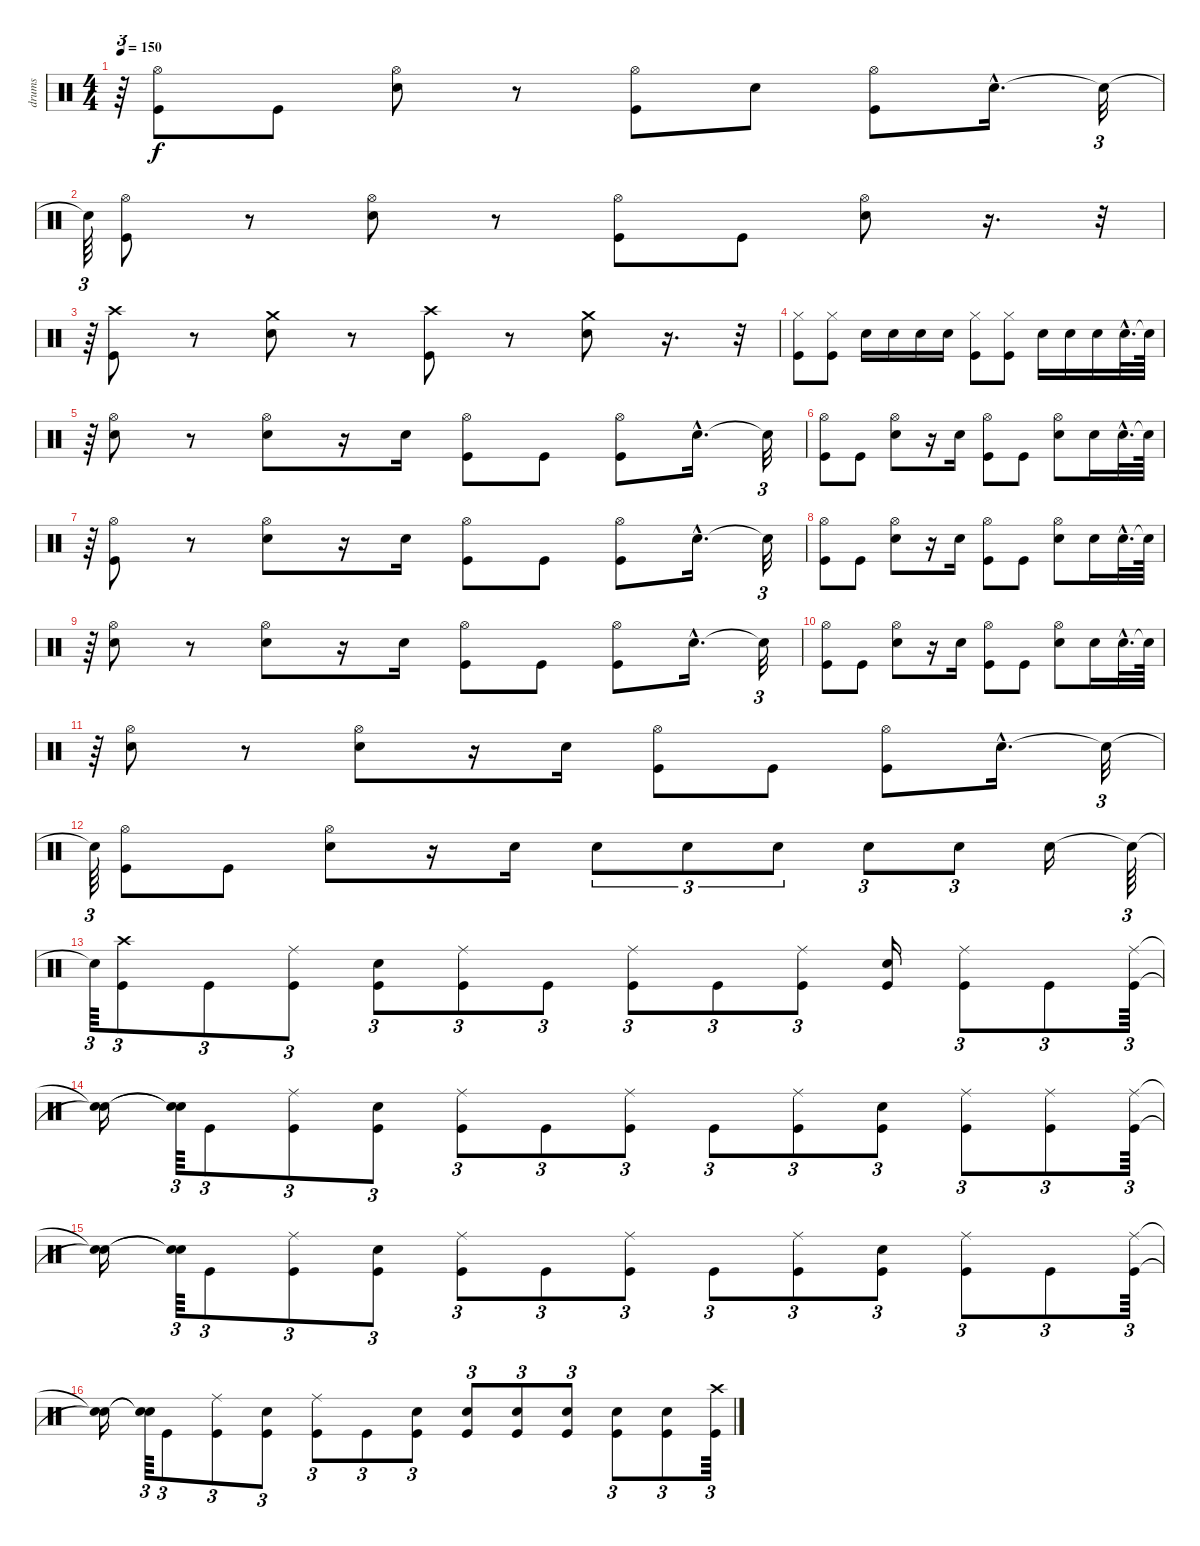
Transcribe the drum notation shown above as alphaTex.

\track ("drums" "drums") {instrument percussion}
\staff {score}
\articulation defaults
\ts (4 4)
\tempo 150
\clef neutral
\ks c
r.64{tu (3 2) dy f} ("Hi-Hat (open)" "Kick (hit)").8 "Kick (hit)".8 ("Hi-Hat (open)" "Electric Snare (hit)").8 r.8 ("Kick (hit)" "Hi-Hat (open)").8 "Electric Snare (hit)".8 ("Hi-Hat (open)" "Kick (hit)").8 "Electric Snare (hit)"{hac}.16{d} "Snare (hit)"{t}.32{tu (3 2)} |
"Snare (hit)"{t}.64{tu (3 2)} ("Hi-Hat (open)" "Kick (hit)").8 r.8 ("Hi-Hat (open)" "Electric Snare (hit)").8 r.8 ("Hi-Hat (open)" "Kick (hit)").8 "Kick (hit)".8 ("Hi-Hat (open)" "Electric Snare (hit)").8 r.16{d} r.32{tu (3 2)} |
r.64{tu (3 2)} ("Crash high (hit)" "Kick (hit)").8 r.8 ("Crash medium (hit)" "Electric Snare (hit)").8 r.8 ("Crash high (hit)" "Kick (hit)").8 r.8 ("Crash medium (hit)" "Electric Snare (hit)").8 r.16{d} r.32{tu (3 2)} |
("Hi-Hat (closed)" "Kick (hit)").8 ("Hi-Hat (closed)" "Kick (hit)").8 "Electric Snare (hit)".16 "Electric Snare (hit)".16 "Electric Snare (hit)".16 "Electric Snare (hit)".16 ("Hi-Hat (closed)" "Kick (hit)").8 ("Hi-Hat (closed)" "Kick (hit)").8 "Electric Snare (hit)".16 "Electric Snare (hit)".16 "Snare (hit) 2".16 "Electric Snare (hit)"{hac}.32{d} "Snare (hit)"{t}.64 |
r.64{tu (3 2)} ("Hi-Hat (open)" "Electric Snare (hit)").8 r.8 ("Hi-Hat (open)" "Electric Snare (hit)").8 r.16 "Electric Snare (hit)".16 ("Kick (hit)" "Hi-Hat (open)").8 "Kick (hit)".8 ("Hi-Hat (open)" "Kick (hit)").8 "Electric Snare (hit)"{hac}.16{d} "Snare (hit)"{t}.32{tu (3 2)} |
("Hi-Hat (open)" "Kick (hit)").8 "Kick (hit)".8 ("Hi-Hat (open)" "Electric Snare (hit)").8 r.16 "Electric Snare (hit)".16 ("Hi-Hat (open)" "Kick (hit)").8 "Kick (hit)".8 ("Electric Snare (hit)" "Hi-Hat (open)").8 "Electric Snare (hit)".16 "Electric Snare (hit)"{hac}.32{d} "Snare (hit)"{t}.64 |
r.64{tu (3 2)} ("Kick (hit)" "Hi-Hat (open)").8 r.8 ("Hi-Hat (open)" "Electric Snare (hit)").8 r.16 "Electric Snare (hit)".16 ("Kick (hit)" "Hi-Hat (open)").8 "Kick (hit)".8 ("Hi-Hat (open)" "Kick (hit)").8 "Electric Snare (hit)"{hac}.16{d} "Snare (hit)"{t}.32{tu (3 2)} |
("Hi-Hat (open)" "Kick (hit)").8 "Kick (hit)".8 ("Hi-Hat (open)" "Electric Snare (hit)").8 r.16 "Electric Snare (hit)".16 ("Hi-Hat (open)" "Kick (hit)").8 "Kick (hit)".8 ("Electric Snare (hit)" "Hi-Hat (open)").8 "Electric Snare (hit)".16 "Electric Snare (hit)"{hac}.32{d} "Snare (hit)"{t}.64 |
r.64{tu (3 2)} ("Hi-Hat (open)" "Electric Snare (hit)").8 r.8 ("Hi-Hat (open)" "Electric Snare (hit)").8 r.16 "Electric Snare (hit)".16 ("Kick (hit)" "Hi-Hat (open)").8 "Kick (hit)".8 ("Hi-Hat (open)" "Kick (hit)").8 "Electric Snare (hit)"{hac}.16{d} "Snare (hit)"{t}.32{tu (3 2)} |
("Hi-Hat (open)" "Kick (hit)").8 "Kick (hit)".8 ("Hi-Hat (open)" "Electric Snare (hit)").8 r.16 "Electric Snare (hit)".16 ("Hi-Hat (open)" "Kick (hit)").8 "Kick (hit)".8 ("Electric Snare (hit)" "Hi-Hat (open)").8 "Electric Snare (hit)".16 "Electric Snare (hit)"{hac}.32{d} "Snare (hit)"{t}.64 |
r.64{tu (3 2)} ("Hi-Hat (open)" "Electric Snare (hit)").8 r.8 ("Hi-Hat (open)" "Electric Snare (hit)").8 r.16 "Electric Snare (hit)".16 ("Kick (hit)" "Hi-Hat (open)").8 "Kick (hit)".8 ("Hi-Hat (open)" "Kick (hit)").8 "Electric Snare (hit)"{hac}.16{d} "Snare (hit)"{t}.32{tu (3 2)} |
"Snare (hit)"{t}.64{tu (3 2)} ("Hi-Hat (open)" "Kick (hit)").8 "Kick (hit)".8 ("Hi-Hat (open)" "Electric Snare (hit)").8 r.16 "Electric Snare (hit)".16 "Electric Snare (hit)".8{tu (3 2)} "Electric Snare (hit)".8{tu (3 2)} "Electric Snare (hit)".8{tu (3 2)} "Electric Snare (hit)".8{tu (3 2)} "Electric Snare (hit)".8{tu (3 2)} "Electric Snare (hit)".16 "Snare (hit)"{t}.64{tu (3 2)} |
"Snare (hit)"{t}.64{tu (3 2)} ("Kick (hit)" "Crash high (hit)").8{tu (3 2)} "Kick (hit)".8{tu (3 2)} ("Kick (hit)" "Ride (middle)").8{tu (3 2)} ("Kick (hit)" "Electric Snare (hit)").8{tu (3 2)} ("Ride (middle)" "Kick (hit)").8{tu (3 2)} "Kick (hit)".8{tu (3 2)} ("Ride (middle)" "Kick (hit)").8{tu (3 2)} "Kick (hit)".8{tu (3 2)} ("Ride (middle)" "Kick (hit)").8{tu (3 2)} ("Kick (hit)" "Electric Snare (hit)").16 ("Ride (middle)" "Kick (hit)").8{tu (3 2)} "Kick (hit)".8{tu (3 2)} ("Ride (middle)" "Kick (hit)").64{tu (3 2)} |
("Snare (hit)"{t} "Snare (hit)"{t}).16 ("Snare (hit)"{t} "Snare (hit)"{t}).64{tu (3 2)} "Kick (hit)".8{tu (3 2)} ("Ride (middle)" "Kick (hit)").8{tu (3 2)} ("Kick (hit)" "Electric Snare (hit)").8{tu (3 2)} ("Ride (middle)" "Kick (hit)").8{tu (3 2)} "Kick (hit)".8{tu (3 2)} ("Ride (middle)" "Kick (hit)").8{tu (3 2)} "Kick (hit)".8{tu (3 2)} ("Ride (middle)" "Kick (hit)").8{tu (3 2)} ("Kick (hit)" "Electric Snare (hit)").8{tu (3 2)} ("Ride (middle)" "Kick (hit)").8{tu (3 2)} ("Ride (middle)" "Kick (hit)").8{tu (3 2)} ("Kick (hit)" "Ride (middle)").64{tu (3 2)} |
("Snare (hit)"{t} "Snare (hit)"{t}).16 ("Snare (hit)"{t} "Snare (hit)"{t}).64{tu (3 2)} "Kick (hit)".8{tu (3 2)} ("Kick (hit)" "Ride (middle)").8{tu (3 2)} ("Kick (hit)" "Electric Snare (hit)").8{tu (3 2)} ("Ride (middle)" "Kick (hit)").8{tu (3 2)} "Kick (hit)".8{tu (3 2)} ("Ride (middle)" "Kick (hit)").8{tu (3 2)} "Kick (hit)".8{tu (3 2)} ("Ride (middle)" "Kick (hit)").8{tu (3 2)} ("Kick (hit)" "Electric Snare (hit)").8{tu (3 2)} ("Ride (middle)" "Kick (hit)").8{tu (3 2)} "Kick (hit)".8{tu (3 2)} ("Kick (hit)" "Ride (middle)").64{tu (3 2)} |
("Snare (hit)"{t} "Snare (hit)"{t}).16 ("Snare (hit)"{t} "Snare (hit)"{t}).64{tu (3 2)} "Kick (hit)".8{tu (3 2)} ("Kick (hit)" "Ride (middle)").8{tu (3 2)} ("Kick (hit)" "Electric Snare (hit)").8{tu (3 2)} ("Ride (middle)" "Kick (hit)").8{tu (3 2)} "Kick (hit)".8{tu (3 2)} ("Kick (hit)" "Electric Snare (hit)").8{tu (3 2)} ("Kick (hit)" "Electric Snare (hit)").8{tu (3 2)} ("Kick (hit)" "Electric Snare (hit)").8{tu (3 2)} ("Kick (hit)" "Electric Snare (hit)").8{tu (3 2)} ("Kick (hit)" "Electric Snare (hit)").8{tu (3 2)} ("Kick (hit)" "Electric Snare (hit)").8{tu (3 2)} ("Crash high (hit)" "Kick (hit)").64{tu (3 2)}
